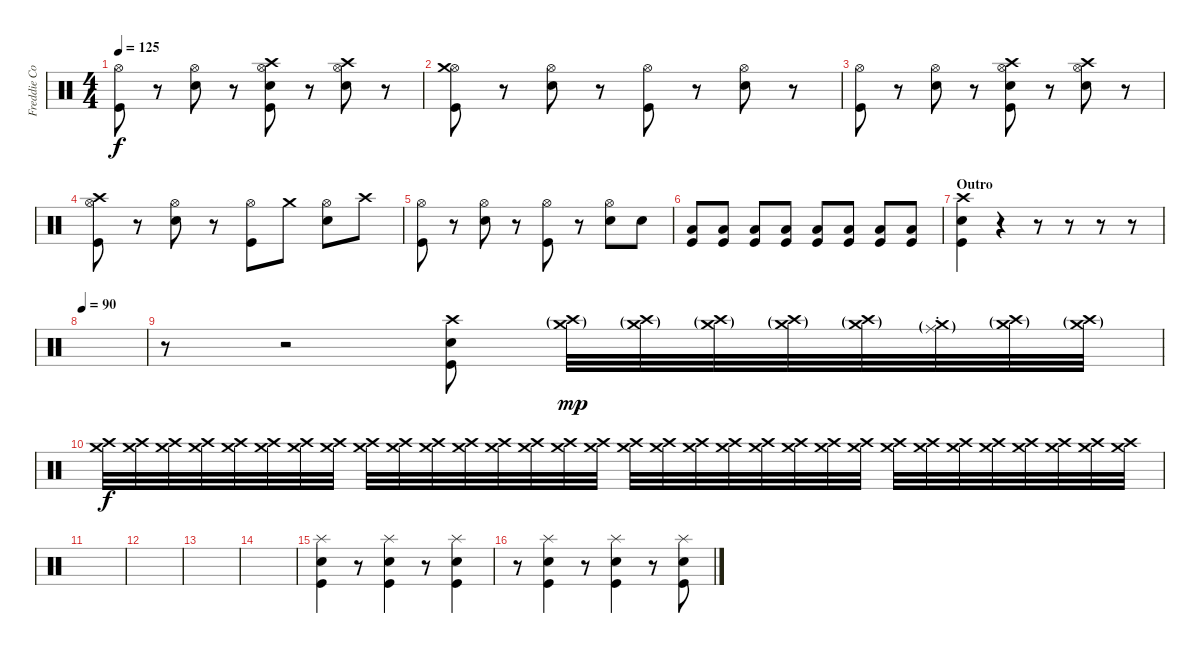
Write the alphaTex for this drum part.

\track ("Freddie Coury - Drums" "Freddie Co") {instrument percussion}
\staff {score}
\articulation defaults
\ts (4 4)
\tempo 125
\clef neutral
\ks c
("Hi-Hat (open)" "Kick (hit)").8{dy f} r.8 ("Hi-Hat (open)" "Snare (hit) 2").8 r.8 ("Hi-Hat (open)" "Crash high (hit)" "Snare (hit) 2" "Kick (hit)").8 r.8 ("Hi-Hat (open)" "Crash high (hit)" "Snare (hit) 2").8 r.8 |
("Hi-Hat (open)" "Crash medium (hit)" "Kick (hit)").8 r.8 ("Hi-Hat (open)" "Snare (hit) 2").8 r.8 ("Hi-Hat (open)" "Kick (hit)").8 r.8 ("Hi-Hat (open)" "Snare (hit) 2").8 r.8 |
("Hi-Hat (open)" "Kick (hit)").8 r.8 ("Hi-Hat (open)" "Snare (hit) 2").8 r.8 ("Hi-Hat (open)" "Crash high (hit)" "Snare (hit) 2" "Kick (hit)").8 r.8 ("Hi-Hat (open)" "Crash high (hit)" "Snare (hit) 2").8 r.8 |
("Hi-Hat (open)" "Crash high (hit)" "Kick (hit)").8 r.8 ("Hi-Hat (open)" "Snare (hit) 2").8 r.8 ("Hi-Hat (open)" "Kick (hit)").8 "Crash medium (hit)".8 ("Hi-Hat (open)" "Snare (hit) 2").8 "Crash high (hit)".8 |
("Hi-Hat (open)" "Kick (hit)").8 r.8 ("Hi-Hat (open)" "Snare (hit) 2").8 r.8 ("Hi-Hat (open)" "Kick (hit)").8 r.8 ("Hi-Hat (open)" "Snare (hit) 2").8 "Snare (hit) 2".8 |
("Kick (hit)" "Low Floor Tom (hit)").8 ("Kick (hit)" "Low Floor Tom (hit)").8 ("Kick (hit)" "Low Floor Tom (hit)").8 ("Kick (hit)" "Low Floor Tom (hit)").8 ("Kick (hit)" "Low Floor Tom (hit)").8 ("Kick (hit)" "Low Floor Tom (hit)").8 ("Kick (hit)" "Low Floor Tom (hit)").8 ("Kick (hit)" "Low Floor Tom (hit)").8 |
\section ("" "Outro")
("Crash high (hit)" "Snare (hit) 2" "Kick (hit)").4 r.4 r.8 r.8 r.8 r.8 |
\tempo 90
|
r.8 r.2 ("Snare (hit) 2" "Crash high (hit)" "Kick (hit)").8 ("Crash medium (hit)"{g} "Crash high (hit)"{g}).32{dy mp} ("Crash medium (hit)"{g} "Crash high (hit)"{g}).32{volume 15} ("Crash medium (hit)"{g} "Crash high (hit)"{g}).32 ("Crash medium (hit)"{g} "Crash high (hit)"{g}).32 ("Crash medium (hit)"{g} "Crash high (hit)"{g}).32 ("Crash medium (hit)"{g} "Ride (choke)"{g}).32 ("Crash medium (hit)"{g} "Crash high (hit)"{g}).32 ("Crash medium (hit)"{g} "Crash high (hit)"{g}).32 |
("Crash medium (hit)" "Crash high (hit)").32{dy f} ("Crash medium (hit)" "Crash high (hit)").32 ("Crash medium (hit)" "Crash high (hit)").32 ("Crash medium (hit)" "Crash high (hit)").32 ("Crash medium (hit)" "Crash high (hit)").32 ("Crash medium (hit)" "Crash high (hit)").32 ("Crash medium (hit)" "Crash high (hit)").32 ("Crash medium (hit)" "Crash high (hit)").32 ("Crash medium (hit)" "Crash high (hit)").32 ("Crash medium (hit)" "Crash high (hit)").32 ("Crash medium (hit)" "Crash high (hit)").32 ("Crash medium (hit)" "Crash high (hit)").32 ("Crash medium (hit)" "Crash high (hit)").32 ("Crash medium (hit)" "Crash high (hit)").32 ("Crash medium (hit)" "Crash high (hit)").32 ("Crash medium (hit)" "Crash high (hit)").32 ("Crash medium (hit)" "Crash high (hit)").32 ("Crash medium (hit)" "Crash high (hit)").32 ("Crash medium (hit)" "Crash high (hit)").32 ("Crash medium (hit)" "Crash high (hit)").32 ("Crash medium (hit)" "Crash high (hit)").32 ("Crash medium (hit)" "Crash high (hit)").32 ("Crash medium (hit)" "Crash high (hit)").32 ("Crash medium (hit)" "Crash high (hit)").32 ("Crash medium (hit)" "Crash high (hit)").32 ("Crash medium (hit)" "Crash high (hit)").32 ("Crash medium (hit)" "Crash high (hit)").32 ("Crash medium (hit)" "Crash high (hit)").32 ("Crash medium (hit)" "Crash high (hit)").32 ("Crash medium (hit)" "Crash high (hit)").32 ("Crash medium (hit)" "Crash high (hit)").32 ("Crash medium (hit)" "Crash high (hit)").32 |
|
|
|
|
("Splash (hit)" "Snare (hit) 2" "Kick (hit)").4{volume 0} r.8 ("Splash (hit)" "Snare (hit) 2" "Kick (hit)").4 r.8 ("Splash (hit)" "Snare (hit) 2" "Kick (hit)").4 |
r.8 ("Splash (hit)" "Snare (hit) 2" "Kick (hit)").4 r.8 ("Splash (hit)" "Snare (hit) 2" "Kick (hit)").4 r.8 ("Splash (hit)" "Snare (hit) 2" "Kick (hit)").8
